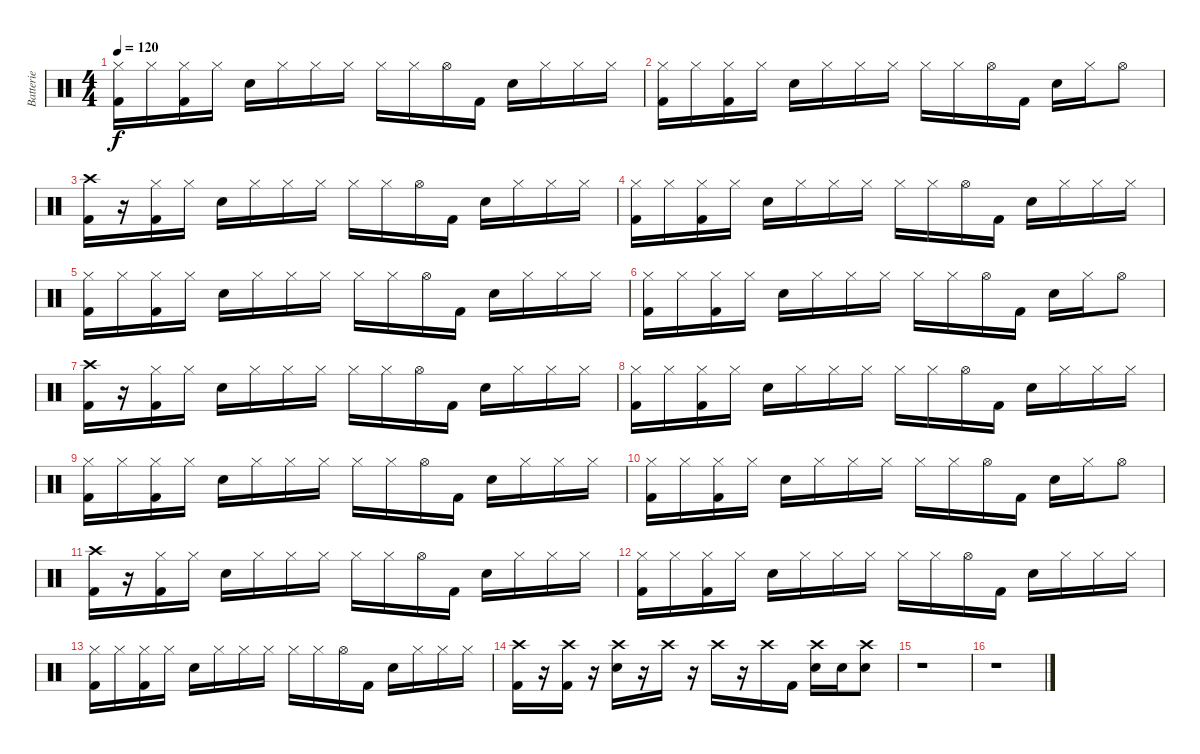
\track ("Batterie" "Batterie") {instrument percussion}
\staff {score}
\articulation defaults
\ts (4 4)
\tempo 120
\clef neutral
\ks c
("Hi-Hat (closed)" "Kick (hit) 2").16{dy f} "Hi-Hat (closed)".16 ("Hi-Hat (closed)" "Kick (hit) 2").16 "Hi-Hat (closed)".16 "Snare (hit) 2".16 "Hi-Hat (closed)".16 "Hi-Hat (closed)".16 "Hi-Hat (closed)".16 "Hi-Hat (closed)".16 "Hi-Hat (closed)".16 "Hi-Hat (open)".16 "Kick (hit) 2".16 "Snare (hit) 2".16 "Hi-Hat (closed)".16 "Hi-Hat (closed)".16 "Hi-Hat (closed)".16 |
("Hi-Hat (closed)" "Kick (hit) 2").16 "Hi-Hat (closed)".16 ("Hi-Hat (closed)" "Kick (hit) 2").16 "Hi-Hat (closed)".16 "Snare (hit) 2".16 "Hi-Hat (closed)".16 "Hi-Hat (closed)".16 "Hi-Hat (closed)".16 "Hi-Hat (closed)".16 "Hi-Hat (closed)".16 "Hi-Hat (open)".16 "Kick (hit) 2".16 "Snare (hit) 2".16 "Hi-Hat (closed)".16 "Hi-Hat (open)".8 |
("Crash high (hit)" "Kick (hit) 2").16 r.16 ("Hi-Hat (closed)" "Kick (hit) 2").16 "Hi-Hat (closed)".16 "Snare (hit) 2".16 "Hi-Hat (closed)".16 "Hi-Hat (closed)".16 "Hi-Hat (closed)".16 "Hi-Hat (closed)".16 "Hi-Hat (closed)".16 "Hi-Hat (open)".16 "Kick (hit) 2".16 "Snare (hit) 2".16 "Hi-Hat (closed)".16 "Hi-Hat (closed)".16 "Hi-Hat (closed)".16 |
("Hi-Hat (closed)" "Kick (hit) 2").16 "Hi-Hat (closed)".16 ("Hi-Hat (closed)" "Kick (hit) 2").16 "Hi-Hat (closed)".16 "Snare (hit) 2".16 "Hi-Hat (closed)".16 "Hi-Hat (closed)".16 "Hi-Hat (closed)".16 "Hi-Hat (closed)".16 "Hi-Hat (closed)".16 "Hi-Hat (open)".16 "Kick (hit) 2".16 "Snare (hit) 2".16 "Hi-Hat (closed)".16 "Hi-Hat (closed)".16 "Hi-Hat (closed)".16 |
("Hi-Hat (closed)" "Kick (hit) 2").16 "Hi-Hat (closed)".16 ("Hi-Hat (closed)" "Kick (hit) 2").16 "Hi-Hat (closed)".16 "Snare (hit) 2".16 "Hi-Hat (closed)".16 "Hi-Hat (closed)".16 "Hi-Hat (closed)".16 "Hi-Hat (closed)".16 "Hi-Hat (closed)".16 "Hi-Hat (open)".16 "Kick (hit) 2".16 "Snare (hit) 2".16 "Hi-Hat (closed)".16 "Hi-Hat (closed)".16 "Hi-Hat (closed)".16 |
("Hi-Hat (closed)" "Kick (hit) 2").16 "Hi-Hat (closed)".16 ("Hi-Hat (closed)" "Kick (hit) 2").16 "Hi-Hat (closed)".16 "Snare (hit) 2".16 "Hi-Hat (closed)".16 "Hi-Hat (closed)".16 "Hi-Hat (closed)".16 "Hi-Hat (closed)".16 "Hi-Hat (closed)".16 "Hi-Hat (open)".16 "Kick (hit) 2".16 "Snare (hit) 2".16 "Hi-Hat (closed)".16 "Hi-Hat (open)".8 |
("Crash high (hit)" "Kick (hit) 2").16 r.16 ("Hi-Hat (closed)" "Kick (hit) 2").16 "Hi-Hat (closed)".16 "Snare (hit) 2".16 "Hi-Hat (closed)".16 "Hi-Hat (closed)".16 "Hi-Hat (closed)".16 "Hi-Hat (closed)".16 "Hi-Hat (closed)".16 "Hi-Hat (open)".16 "Kick (hit) 2".16 "Snare (hit) 2".16 "Hi-Hat (closed)".16 "Hi-Hat (closed)".16 "Hi-Hat (closed)".16 |
("Hi-Hat (closed)" "Kick (hit) 2").16 "Hi-Hat (closed)".16 ("Hi-Hat (closed)" "Kick (hit) 2").16 "Hi-Hat (closed)".16 "Snare (hit) 2".16 "Hi-Hat (closed)".16 "Hi-Hat (closed)".16 "Hi-Hat (closed)".16 "Hi-Hat (closed)".16 "Hi-Hat (closed)".16 "Hi-Hat (open)".16 "Kick (hit) 2".16 "Snare (hit) 2".16 "Hi-Hat (closed)".16 "Hi-Hat (closed)".16 "Hi-Hat (closed)".16 |
("Hi-Hat (closed)" "Kick (hit) 2").16 "Hi-Hat (closed)".16 ("Hi-Hat (closed)" "Kick (hit) 2").16 "Hi-Hat (closed)".16 "Snare (hit) 2".16 "Hi-Hat (closed)".16 "Hi-Hat (closed)".16 "Hi-Hat (closed)".16 "Hi-Hat (closed)".16 "Hi-Hat (closed)".16 "Hi-Hat (open)".16 "Kick (hit) 2".16 "Snare (hit) 2".16 "Hi-Hat (closed)".16 "Hi-Hat (closed)".16 "Hi-Hat (closed)".16 |
("Hi-Hat (closed)" "Kick (hit) 2").16 "Hi-Hat (closed)".16 ("Hi-Hat (closed)" "Kick (hit) 2").16 "Hi-Hat (closed)".16 "Snare (hit) 2".16 "Hi-Hat (closed)".16 "Hi-Hat (closed)".16 "Hi-Hat (closed)".16 "Hi-Hat (closed)".16 "Hi-Hat (closed)".16 "Hi-Hat (open)".16 "Kick (hit) 2".16 "Snare (hit) 2".16 "Hi-Hat (closed)".16 "Hi-Hat (open)".8 |
("Crash high (hit)" "Kick (hit) 2").16 r.16 ("Hi-Hat (closed)" "Kick (hit) 2").16 "Hi-Hat (closed)".16 "Snare (hit) 2".16 "Hi-Hat (closed)".16 "Hi-Hat (closed)".16 "Hi-Hat (closed)".16 "Hi-Hat (closed)".16 "Hi-Hat (closed)".16 "Hi-Hat (open)".16 "Kick (hit) 2".16 "Snare (hit) 2".16 "Hi-Hat (closed)".16 "Hi-Hat (closed)".16 "Hi-Hat (closed)".16 |
("Hi-Hat (closed)" "Kick (hit) 2").16 "Hi-Hat (closed)".16 ("Hi-Hat (closed)" "Kick (hit) 2").16 "Hi-Hat (closed)".16 "Snare (hit) 2".16 "Hi-Hat (closed)".16 "Hi-Hat (closed)".16 "Hi-Hat (closed)".16 "Hi-Hat (closed)".16 "Hi-Hat (closed)".16 "Hi-Hat (open)".16 "Kick (hit) 2".16 "Snare (hit) 2".16 "Hi-Hat (closed)".16 "Hi-Hat (closed)".16 "Hi-Hat (closed)".16 |
("Hi-Hat (closed)" "Kick (hit) 2").16 "Hi-Hat (closed)".16 ("Hi-Hat (closed)" "Kick (hit) 2").16 "Hi-Hat (closed)".16 "Snare (hit) 2".16 "Hi-Hat (closed)".16 "Hi-Hat (closed)".16 "Hi-Hat (closed)".16 "Hi-Hat (closed)".16 "Hi-Hat (closed)".16 "Hi-Hat (open)".16 "Kick (hit) 2".16 "Snare (hit) 2".16 "Hi-Hat (closed)".16 "Hi-Hat (closed)".16 "Hi-Hat (closed)".16 |
("Crash high (hit)" "Kick (hit) 2").16 r.16 ("Crash high (hit)" "Kick (hit) 2").16 r.16 ("Crash high (hit)" "Snare (hit) 2").16 r.16 "Crash high (hit)".16 r.16 "Crash high (hit)".16 r.16 "Crash high (hit)".16 "Kick (hit) 2".16 ("Crash high (hit)" "Snare (hit) 2").16 "Snare (hit) 2".16 ("Crash high (hit)" "Snare (hit) 2").8 |
r.1 |
r.1
